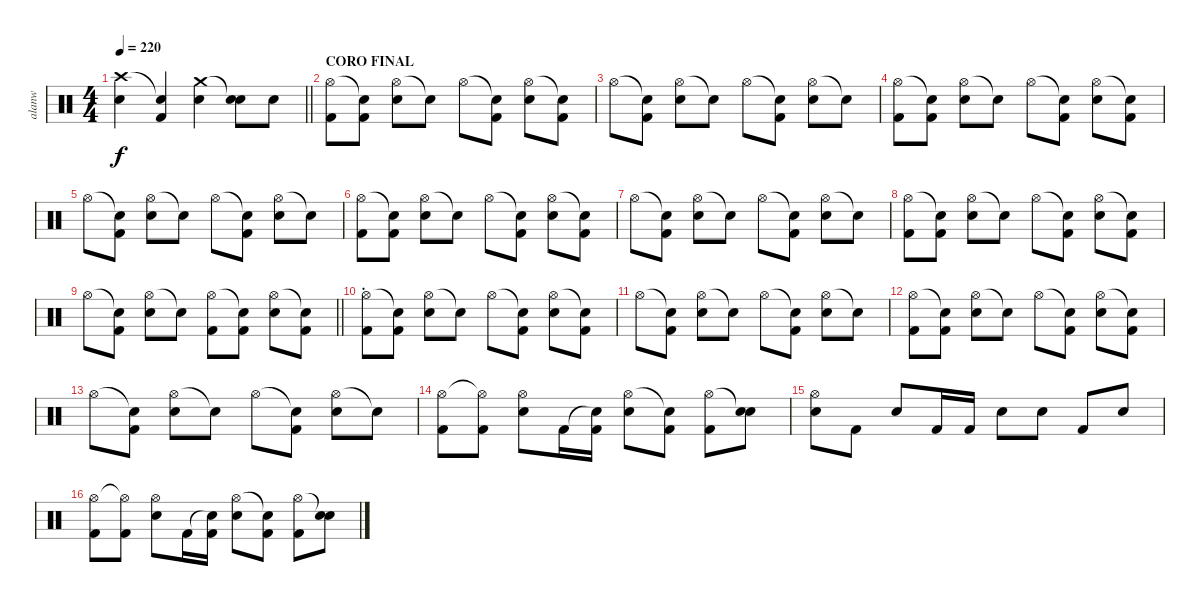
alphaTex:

\track ("alanw" "alanw") {instrument percussion}
\staff {score}
\articulation defaults
\ts (4 4)
\tempo 220
\clef neutral
\barLineRight lightlight
\ks c
("Crash high (hit)" "Electric Snare (hit)").4{dy f} ("Snare (hit)"{t} "Kick (hit) 2").4 ("Crash medium (hit)" "Electric Snare (hit)").4 ("Snare (hit)"{t} "Electric Snare (hit)").8 "Electric Snare (hit)".8 |
\section ("" "CORO FINAL")
("Hi-Hat (open)" "Kick (hit) 2").8 ("Snare (hit)"{t} "Kick (hit) 2").8 ("Hi-Hat (open)" "Electric Snare (hit)").8 "Snare (hit)"{t}.8 "Hi-Hat (open)".8 ("Snare (hit)"{t} "Kick (hit) 2").8 ("Hi-Hat (open)" "Electric Snare (hit)").8 ("Snare (hit)"{t} "Kick (hit) 2").8 |
"Hi-Hat (open)".8 ("Snare (hit)"{t} "Kick (hit) 2").8 ("Hi-Hat (open)" "Electric Snare (hit)").8 "Snare (hit)"{t}.8 "Hi-Hat (open)".8 ("Snare (hit)"{t} "Kick (hit) 2").8 ("Hi-Hat (open)" "Electric Snare (hit)").8 "Snare (hit)"{t}.8 |
("Hi-Hat (open)" "Kick (hit) 2").8 ("Snare (hit)"{t} "Kick (hit) 2").8 ("Hi-Hat (open)" "Electric Snare (hit)").8 "Snare (hit)"{t}.8 "Hi-Hat (open)".8 ("Snare (hit)"{t} "Kick (hit) 2").8 ("Hi-Hat (open)" "Electric Snare (hit)").8 ("Snare (hit)"{t} "Kick (hit) 2").8 |
"Hi-Hat (open)".8 ("Snare (hit)"{t} "Kick (hit) 2").8 ("Hi-Hat (open)" "Electric Snare (hit)").8 "Snare (hit)"{t}.8 "Hi-Hat (open)".8 ("Snare (hit)"{t} "Kick (hit) 2").8 ("Hi-Hat (open)" "Electric Snare (hit)").8 "Snare (hit)"{t}.8 |
("Hi-Hat (open)" "Kick (hit) 2").8 ("Snare (hit)"{t} "Kick (hit) 2").8 ("Hi-Hat (open)" "Electric Snare (hit)").8 "Snare (hit)"{t}.8 "Hi-Hat (open)".8 ("Snare (hit)"{t} "Kick (hit) 2").8 ("Hi-Hat (open)" "Electric Snare (hit)").8 ("Snare (hit)"{t} "Kick (hit) 2").8 |
"Hi-Hat (open)".8 ("Snare (hit)"{t} "Kick (hit) 2").8 ("Hi-Hat (open)" "Electric Snare (hit)").8 "Snare (hit)"{t}.8 "Hi-Hat (open)".8 ("Snare (hit)"{t} "Kick (hit) 2").8 ("Hi-Hat (open)" "Electric Snare (hit)").8 "Snare (hit)"{t}.8 |
("Hi-Hat (open)" "Kick (hit) 2").8 ("Snare (hit)"{t} "Kick (hit) 2").8 ("Hi-Hat (open)" "Electric Snare (hit)").8 "Snare (hit)"{t}.8 "Hi-Hat (open)".8 ("Snare (hit)"{t} "Kick (hit) 2").8 ("Hi-Hat (open)" "Electric Snare (hit)").8 ("Snare (hit)"{t} "Kick (hit) 2").8 |
\barLineRight lightlight "Hi-Hat (open)".8
("Snare (hit)"{t} "Kick (hit) 2").8 ("Hi-Hat (open)" "Electric Snare (hit)").8 "Snare (hit)"{t}.8 ("Hi-Hat (open)" "Kick (hit) 2").8 ("Snare (hit)"{t} "Kick (hit) 2").8 ("Hi-Hat (open)" "Electric Snare (hit)").8 ("Snare (hit)"{t} "Kick (hit) 2").8 |
\section ("" ".")
("Hi-Hat (open)" "Kick (hit) 2").8 ("Snare (hit)"{t} "Kick (hit) 2").8 ("Hi-Hat (open)" "Electric Snare (hit)").8 "Snare (hit)"{t}.8 "Hi-Hat (open)".8 ("Snare (hit)"{t} "Kick (hit) 2").8 ("Hi-Hat (open)" "Electric Snare (hit)").8 ("Snare (hit)"{t} "Kick (hit) 2").8 |
"Hi-Hat (open)".8 ("Snare (hit)"{t} "Kick (hit) 2").8 ("Hi-Hat (open)" "Electric Snare (hit)").8 "Snare (hit)"{t}.8 "Hi-Hat (open)".8 ("Snare (hit)"{t} "Kick (hit) 2").8 ("Hi-Hat (open)" "Electric Snare (hit)").8 "Snare (hit)"{t}.8 |
("Hi-Hat (open)" "Kick (hit) 2").8 ("Snare (hit)"{t} "Kick (hit) 2").8 ("Hi-Hat (open)" "Electric Snare (hit)").8 "Snare (hit)"{t}.8 "Hi-Hat (open)".8 ("Snare (hit)"{t} "Kick (hit) 2").8 ("Hi-Hat (open)" "Electric Snare (hit)").8 ("Snare (hit)"{t} "Kick (hit) 2").8 |
"Hi-Hat (open)".8 ("Snare (hit)"{t} "Kick (hit) 2").8 ("Hi-Hat (open)" "Electric Snare (hit)").8 "Snare (hit)"{t}.8 "Hi-Hat (open)".8 ("Snare (hit)"{t} "Kick (hit) 2").8 ("Hi-Hat (open)" "Electric Snare (hit)").8 "Snare (hit)"{t}.8 |
("Hi-Hat (open)" "Kick (hit) 2").8 ("Hi-Hat (open)"{t} "Kick (hit) 2").8 ("Hi-Hat (open)" "Electric Snare (hit)").8 "Kick (hit) 2".16 ("Snare (hit)"{t} "Kick (hit) 2").16 ("Hi-Hat (open)" "Electric Snare (hit)").8 ("Snare (hit)"{t} "Kick (hit) 2").8 ("Hi-Hat (open)" "Kick (hit) 2").8 ("Snare (hit)"{t} "Electric Snare (hit)").8 |
("Hi-Hat (open)" "Electric Snare (hit)").8 "Kick (hit) 2".8 "Electric Snare (hit)".8 "Kick (hit) 2".16 "Kick (hit) 2".16 "Electric Snare (hit)".8 "Electric Snare (hit)".8 "Kick (hit) 2".8 "Electric Snare (hit)".8 |
("Hi-Hat (open)" "Kick (hit) 2").8 ("Hi-Hat (open)"{t} "Kick (hit) 2").8 ("Hi-Hat (open)" "Electric Snare (hit)").8 "Kick (hit) 2".16 ("Snare (hit)"{t} "Kick (hit) 2").16 ("Hi-Hat (open)" "Electric Snare (hit)").8 ("Snare (hit)"{t} "Kick (hit) 2").8 ("Hi-Hat (open)" "Kick (hit) 2").8 ("Snare (hit)"{t} "Electric Snare (hit)").8
